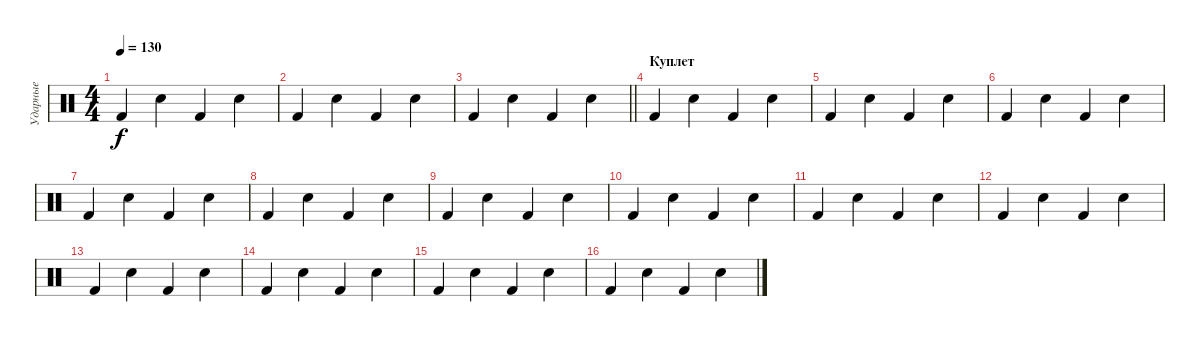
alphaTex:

\track ("Ударные" "Ударные") {instrument percussion}
\staff {score}
\articulation defaults
\ts (4 4)
\tempo 130
\clef neutral
\ks c "Kick (hit) 2".4{dy f} "Electric Snare (hit)".4 "Kick (hit) 2".4 "Electric Snare (hit)".4
|
"Kick (hit) 2".4 "Electric Snare (hit)".4 "Kick (hit) 2".4 "Electric Snare (hit)".4 |
\barLineRight lightlight "Kick (hit) 2".4 "Electric Snare (hit)".4 "Kick (hit) 2".4 "Electric Snare (hit)".4
|
\section ("" "Куплет")
"Kick (hit) 2".4 "Electric Snare (hit)".4 "Kick (hit) 2".4 "Electric Snare (hit)".4 |
"Kick (hit) 2".4 "Electric Snare (hit)".4 "Kick (hit) 2".4 "Electric Snare (hit)".4 |
"Kick (hit) 2".4 "Electric Snare (hit)".4 "Kick (hit) 2".4 "Electric Snare (hit)".4 |
"Kick (hit) 2".4 "Electric Snare (hit)".4 "Kick (hit) 2".4 "Electric Snare (hit)".4 |
"Kick (hit) 2".4 "Electric Snare (hit)".4 "Kick (hit) 2".4 "Electric Snare (hit)".4 |
"Kick (hit) 2".4 "Electric Snare (hit)".4 "Kick (hit) 2".4 "Electric Snare (hit)".4 |
"Kick (hit) 2".4 "Electric Snare (hit)".4 "Kick (hit) 2".4 "Electric Snare (hit)".4 |
"Kick (hit) 2".4 "Electric Snare (hit)".4 "Kick (hit) 2".4 "Electric Snare (hit)".4 |
"Kick (hit) 2".4 "Electric Snare (hit)".4 "Kick (hit) 2".4 "Electric Snare (hit)".4 |
"Kick (hit) 2".4 "Electric Snare (hit)".4 "Kick (hit) 2".4 "Electric Snare (hit)".4 |
"Kick (hit) 2".4 "Electric Snare (hit)".4 "Kick (hit) 2".4 "Electric Snare (hit)".4 |
"Kick (hit) 2".4 "Electric Snare (hit)".4 "Kick (hit) 2".4 "Electric Snare (hit)".4 |
"Kick (hit) 2".4 "Electric Snare (hit)".4 "Kick (hit) 2".4 "Electric Snare (hit)".4
